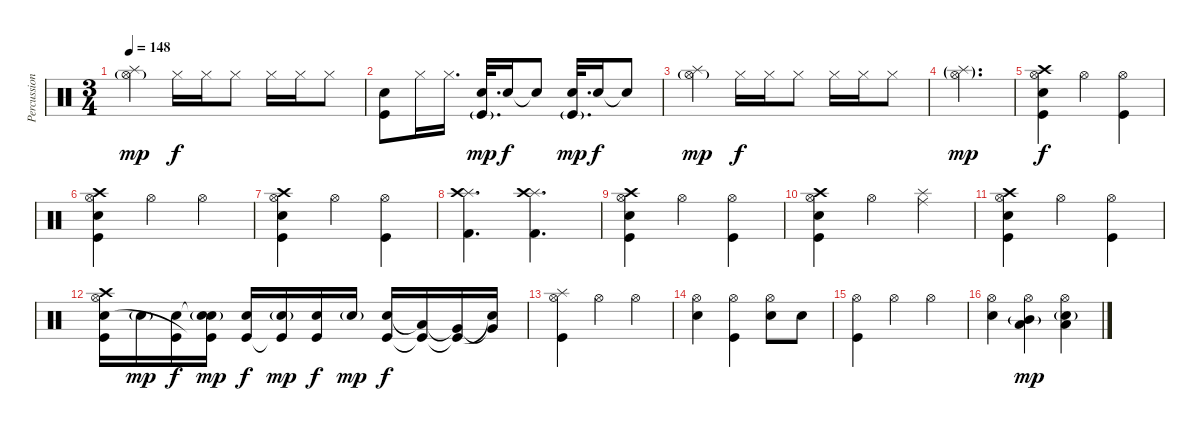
\track ("Percussion" "Percussion") {instrument percussion}
\staff {score}
\articulation defaults
\ts (3 4)
\tempo 148
\clef neutral
\ks c
("Hi-Hat (open)"{g} "Splash (hit)").4{dy mp} "Hi-Hat (closed)".16{dy f} "Hi-Hat (closed)".16 "Hi-Hat (closed)".8 "Hi-Hat (closed)".16 "Hi-Hat (closed)".16 "Hi-Hat (closed)".8 |
("Snare (hit) 2" "Kick (hit)").8 "Hi-Hat (closed)".16 "Hi-Hat (closed)".16{d} ("Snare (hit) 2" "Kick (hit)"{g}).32{d dy mp} "Snare (hit) 2".16{dy f} "Snare (hit) 2"{t}.8 ("Snare (hit) 2" "Kick (hit)"{g}).32{d dy mp} "Snare (hit) 2".16{dy f} "Snare (hit) 2"{t}.8 |
("Hi-Hat (open)"{g} "Splash (hit)").4{dy mp} "Hi-Hat (closed)".16{dy f} "Hi-Hat (closed)".16 "Hi-Hat (closed)".8 "Hi-Hat (closed)".16 "Hi-Hat (closed)".16 "Hi-Hat (closed)".8 |
("Hi-Hat (open)"{g} "Splash (hit)"{g}).2{d dy mp} |
("Hi-Hat (open)" "Crash high (hit)" "Snare (hit) 2" "Kick (hit)").4{dy f volume 12} "Hi-Hat (open)".4 ("Hi-Hat (open)" "Kick (hit)").4 |
("Hi-Hat (open)" "Crash high (hit)" "Snare (hit) 2" "Kick (hit)").4 "Hi-Hat (open)".4 "Hi-Hat (open)".4 |
("Hi-Hat (open)" "Crash high (hit)" "Snare (hit) 2" "Kick (hit)").4 "Hi-Hat (open)".4 ("Hi-Hat (open)" "Kick (hit)").4 |
("Splash (hit)" "Crash high (hit)" "Kick (hit) 2").4{d} ("Splash (hit)" "Crash high (hit)" "Kick (hit) 2").4{d} |
("Hi-Hat (open)" "Crash high (hit)" "Snare (hit) 2" "Kick (hit)").4 "Hi-Hat (open)".4 ("Hi-Hat (open)" "Kick (hit)").4 |
("Hi-Hat (open)" "Crash high (hit)" "Snare (hit) 2" "Kick (hit)").4 "Hi-Hat (open)".4 ("Ride (middle)" "Splash (hit)").4 |
("Hi-Hat (open)" "Crash high (hit)" "Snare (hit) 2" "Kick (hit)").4 "Hi-Hat (open)".4 ("Hi-Hat (open)" "Kick (hit)").4 |
("Hi-Hat (open)" "Crash high (hit)" "Snare (hit) 2" "Kick (hit)").16 "Snare (hit) 2"{g}.16{dy mp} ("Snare (hit) 2" "Kick (hit)").16{dy f} ("Snare (hit) 2"{t} "Snare (hit) 2"{g} "Kick (hit)"{t}).16{dy mp} ("Snare (hit) 2" "Kick (hit)").16{dy f} ("Snare (hit) 2"{g} "Kick (hit)"{t}).16{dy mp} ("Snare (hit) 2" "Kick (hit)").16{dy f} "Snare (hit) 2"{g}.16{dy mp} ("Snare (hit) 2" "Kick (hit)").16{dy f} ("Low Tom (hit)"{t} "Kick (hit)"{t}).16 ("Very Low Tom (hit)"{t} "Kick (hit)"{t}).16 ("Very Low Tom (hit)"{t} "Snare (hit)"{t}).16 |
("Hi-Hat (open)" "Splash (hit)" "Kick (hit)").4 "Hi-Hat (open)".4 "Hi-Hat (open)".4 |
("Hi-Hat (open)" "Snare (hit) 2").4 ("Hi-Hat (open)" "Kick (hit)").4 ("Hi-Hat (open)" "Snare (hit) 2").8 "Snare (hit) 2".8 |
("Hi-Hat (open)" "Kick (hit)").4 "Hi-Hat (open)".4 "Hi-Hat (open)".4 |
("Hi-Hat (open)" "Snare (hit) 2").4 ("Hi-Hat (open)" "Mid Tom (hit)"{g} "Low Tom (hit)").4{dy mp} ("Hi-Hat (open)" "Snare (hit) 2"{g} "Low Floor Tom (hit)").4
